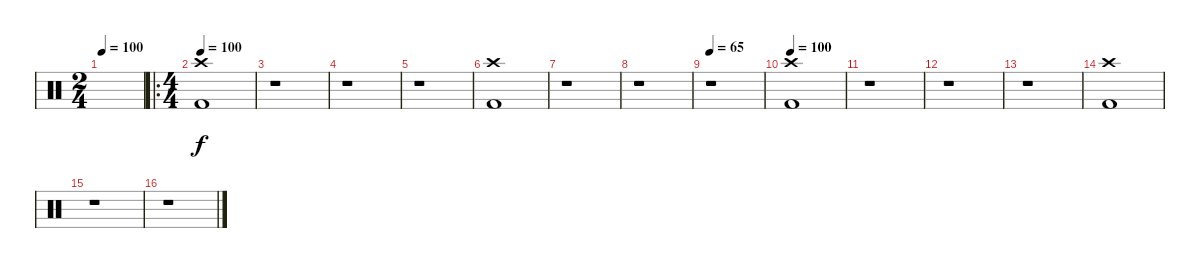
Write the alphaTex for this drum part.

\track "" {instrument percussion}
\staff {score}
\articulation defaults
\ts (2 4)
\tempo 100
\clef neutral
\ks c
|
\ro
\ts (4 4)
\tempo 100
("Crash high (hit)" "Kick (hit) 2").1 |
r.1 |
r.1 |
r.1 |
("Kick (hit) 2" "Crash high (hit)").1 |
r.1 |
r.1 |
\tempo 65
r.1 |
\tempo 100
("Crash high (hit)" "Kick (hit) 2").1 |
r.1 |
r.1 |
r.1 |
("Kick (hit) 2" "Crash high (hit)").1 |
r.1 |
r.1
